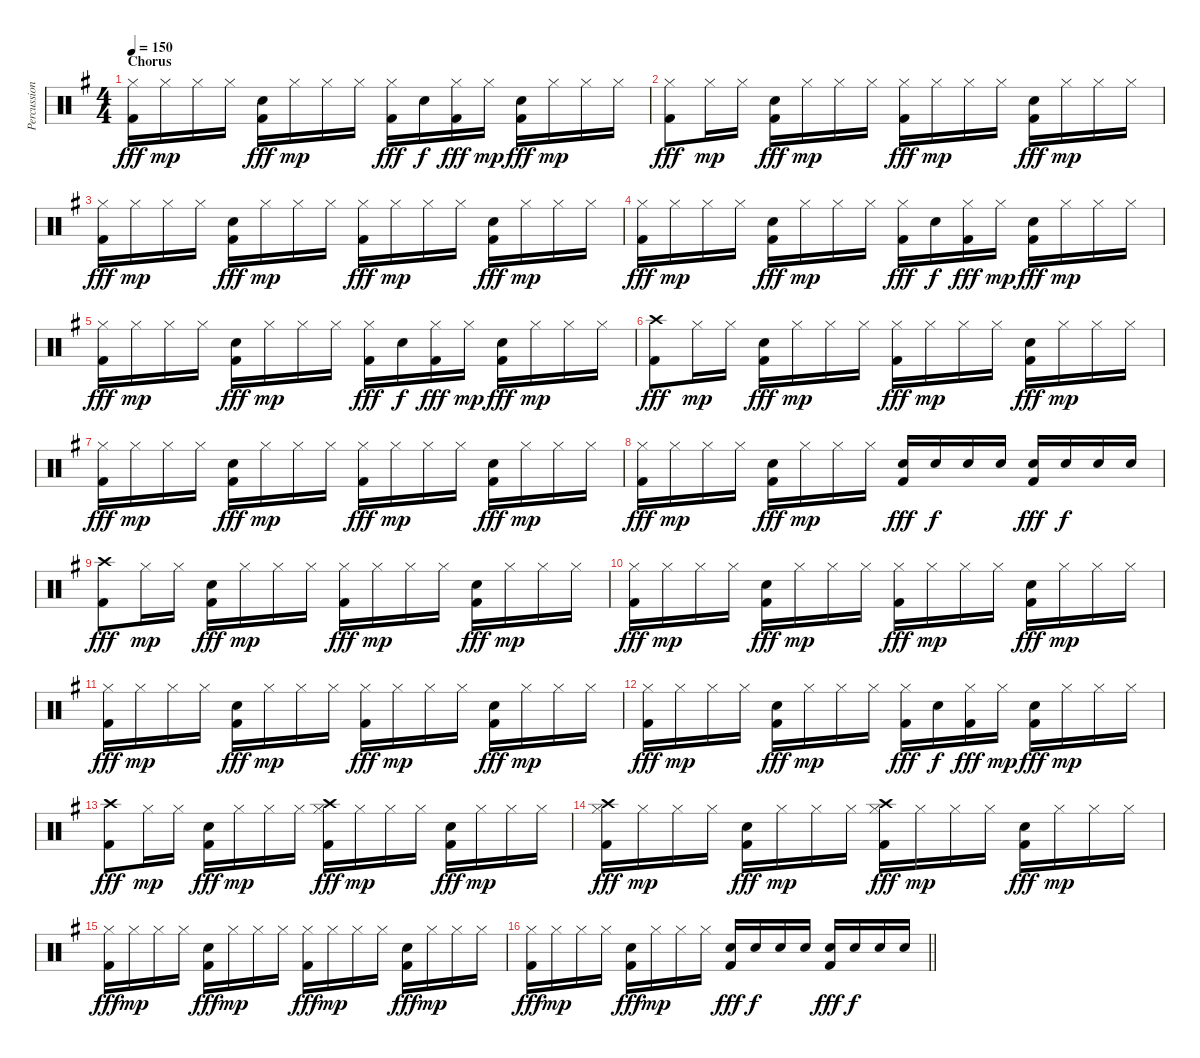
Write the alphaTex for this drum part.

\track ("Percussion" "Percussion") {instrument percussion}
\staff {score}
\articulation defaults
\ts (4 4)
\section ("" "Chorus")
\tempo 150
\clef neutral
\ks eminor
("Hi-Hat (closed)" "Kick (hit) 2").16{dy fff} "Hi-Hat (closed)".16{dy mp} "Hi-Hat (closed)".16 "Hi-Hat (closed)".16 ("Electric Snare (hit)" "Kick (hit) 2").16{dy fff} "Hi-Hat (closed)".16{dy mp} "Hi-Hat (closed)".16 "Hi-Hat (closed)".16 ("Hi-Hat (closed)" "Kick (hit) 2").16{dy fff} "Electric Snare (hit)".16{dy f} ("Hi-Hat (closed)" "Kick (hit) 2").16{dy fff} "Hi-Hat (closed)".16{dy mp} ("Electric Snare (hit)" "Kick (hit) 2").16{dy fff} "Hi-Hat (closed)".16{dy mp} "Hi-Hat (closed)".16 "Hi-Hat (closed)".16 |
("Hi-Hat (closed)" "Kick (hit) 2").8{dy fff} "Hi-Hat (closed)".16{dy mp} "Hi-Hat (closed)".16 ("Electric Snare (hit)" "Kick (hit) 2").16{dy fff} "Hi-Hat (closed)".16{dy mp} "Hi-Hat (closed)".16 "Hi-Hat (closed)".16 ("Hi-Hat (closed)" "Kick (hit) 2").16{dy fff} "Hi-Hat (closed)".16{dy mp} "Hi-Hat (closed)".16 "Hi-Hat (closed)".16 ("Electric Snare (hit)" "Kick (hit) 2").16{dy fff} "Hi-Hat (closed)".16{dy mp} "Hi-Hat (closed)".16 "Hi-Hat (closed)".16 |
("Hi-Hat (closed)" "Kick (hit) 2").16{dy fff} "Hi-Hat (closed)".16{dy mp} "Hi-Hat (closed)".16 "Hi-Hat (closed)".16 ("Electric Snare (hit)" "Kick (hit) 2").16{dy fff} "Hi-Hat (closed)".16{dy mp} "Hi-Hat (closed)".16 "Hi-Hat (closed)".16 ("Hi-Hat (closed)" "Kick (hit) 2").16{dy fff} "Hi-Hat (closed)".16{dy mp} "Hi-Hat (closed)".16 "Hi-Hat (closed)".16 ("Electric Snare (hit)" "Kick (hit) 2").16{dy fff} "Hi-Hat (closed)".16{dy mp} "Hi-Hat (closed)".16 "Hi-Hat (closed)".16 |
("Hi-Hat (closed)" "Kick (hit) 2").16{dy fff} "Hi-Hat (closed)".16{dy mp} "Hi-Hat (closed)".16 "Hi-Hat (closed)".16 ("Electric Snare (hit)" "Kick (hit) 2").16{dy fff} "Hi-Hat (closed)".16{dy mp} "Hi-Hat (closed)".16 "Hi-Hat (closed)".16 ("Hi-Hat (closed)" "Kick (hit) 2").16{dy fff} "Electric Snare (hit)".16{dy f} ("Hi-Hat (closed)" "Kick (hit) 2").16{dy fff} "Hi-Hat (closed)".16{dy mp} ("Electric Snare (hit)" "Kick (hit) 2").16{dy fff} "Hi-Hat (closed)".16{dy mp} "Hi-Hat (closed)".16 "Hi-Hat (closed)".16 |
("Hi-Hat (closed)" "Kick (hit) 2").16{dy fff} "Hi-Hat (closed)".16{dy mp} "Hi-Hat (closed)".16 "Hi-Hat (closed)".16 ("Electric Snare (hit)" "Kick (hit) 2").16{dy fff} "Hi-Hat (closed)".16{dy mp} "Hi-Hat (closed)".16 "Hi-Hat (closed)".16 ("Hi-Hat (closed)" "Kick (hit) 2").16{dy fff} "Electric Snare (hit)".16{dy f} ("Hi-Hat (closed)" "Kick (hit) 2").16{dy fff} "Hi-Hat (closed)".16{dy mp} ("Electric Snare (hit)" "Kick (hit) 2").16{dy fff} "Hi-Hat (closed)".16{dy mp} "Hi-Hat (closed)".16 "Hi-Hat (closed)".16 |
("Crash high (hit)" "Kick (hit) 2").8{dy fff} "Hi-Hat (closed)".16{dy mp} "Hi-Hat (closed)".16 ("Electric Snare (hit)" "Kick (hit) 2").16{dy fff} "Hi-Hat (closed)".16{dy mp} "Hi-Hat (closed)".16 "Hi-Hat (closed)".16 ("Hi-Hat (closed)" "Kick (hit) 2").16{dy fff} "Hi-Hat (closed)".16{dy mp} "Hi-Hat (closed)".16 "Hi-Hat (closed)".16 ("Electric Snare (hit)" "Kick (hit) 2").16{dy fff} "Hi-Hat (closed)".16{dy mp} "Hi-Hat (closed)".16 "Hi-Hat (closed)".16 |
("Hi-Hat (closed)" "Kick (hit) 2").16{dy fff} "Hi-Hat (closed)".16{dy mp} "Hi-Hat (closed)".16 "Hi-Hat (closed)".16 ("Electric Snare (hit)" "Kick (hit) 2").16{dy fff} "Hi-Hat (closed)".16{dy mp} "Hi-Hat (closed)".16 "Hi-Hat (closed)".16 ("Hi-Hat (closed)" "Kick (hit) 2").16{dy fff} "Hi-Hat (closed)".16{dy mp} "Hi-Hat (closed)".16 "Hi-Hat (closed)".16 ("Electric Snare (hit)" "Kick (hit) 2").16{dy fff} "Hi-Hat (closed)".16{dy mp} "Hi-Hat (closed)".16 "Hi-Hat (closed)".16 |
("Hi-Hat (closed)" "Kick (hit) 2").16{dy fff} "Hi-Hat (closed)".16{dy mp} "Hi-Hat (closed)".16 "Hi-Hat (closed)".16 ("Electric Snare (hit)" "Kick (hit) 2").16{dy fff} "Hi-Hat (closed)".16{dy mp} "Hi-Hat (closed)".16 "Hi-Hat (closed)".16 ("Electric Snare (hit)" "Kick (hit) 2").16{dy fff} "Electric Snare (hit)".16{dy f} "Electric Snare (hit)".16 "Electric Snare (hit)".16 ("Electric Snare (hit)" "Kick (hit) 2").16{dy fff} "Electric Snare (hit)".16{dy f} "Electric Snare (hit)".16 "Electric Snare (hit)".16 |
("Crash high (hit)" "Kick (hit) 2").8{dy fff} "Hi-Hat (closed)".16{dy mp} "Hi-Hat (closed)".16 ("Electric Snare (hit)" "Kick (hit) 2").16{dy fff} "Hi-Hat (closed)".16{dy mp} "Hi-Hat (closed)".16 "Hi-Hat (closed)".16 ("Hi-Hat (closed)" "Kick (hit) 2").16{dy fff} "Hi-Hat (closed)".16{dy mp} "Hi-Hat (closed)".16 "Hi-Hat (closed)".16 ("Electric Snare (hit)" "Kick (hit) 2").16{dy fff} "Hi-Hat (closed)".16{dy mp} "Hi-Hat (closed)".16 "Hi-Hat (closed)".16 |
("Hi-Hat (closed)" "Kick (hit) 2").16{dy fff} "Hi-Hat (closed)".16{dy mp} "Hi-Hat (closed)".16 "Hi-Hat (closed)".16 ("Electric Snare (hit)" "Kick (hit) 2").16{dy fff} "Hi-Hat (closed)".16{dy mp} "Hi-Hat (closed)".16 "Hi-Hat (closed)".16 ("Hi-Hat (closed)" "Kick (hit) 2").16{dy fff} "Hi-Hat (closed)".16{dy mp} "Hi-Hat (closed)".16 "Hi-Hat (closed)".16 ("Electric Snare (hit)" "Kick (hit) 2").16{dy fff} "Hi-Hat (closed)".16{dy mp} "Hi-Hat (closed)".16 "Hi-Hat (closed)".16 |
("Hi-Hat (closed)" "Kick (hit) 2").16{dy fff} "Hi-Hat (closed)".16{dy mp} "Hi-Hat (closed)".16 "Hi-Hat (closed)".16 ("Electric Snare (hit)" "Kick (hit) 2").16{dy fff} "Hi-Hat (closed)".16{dy mp} "Hi-Hat (closed)".16 "Hi-Hat (closed)".16 ("Hi-Hat (closed)" "Kick (hit) 2").16{dy fff} "Hi-Hat (closed)".16{dy mp} "Hi-Hat (closed)".16 "Hi-Hat (closed)".16 ("Electric Snare (hit)" "Kick (hit) 2").16{dy fff} "Hi-Hat (closed)".16{dy mp} "Hi-Hat (closed)".16 "Hi-Hat (closed)".16 |
("Hi-Hat (closed)" "Kick (hit) 2").16{dy fff} "Hi-Hat (closed)".16{dy mp} "Hi-Hat (closed)".16 "Hi-Hat (closed)".16 ("Electric Snare (hit)" "Kick (hit) 2").16{dy fff} "Hi-Hat (closed)".16{dy mp} "Hi-Hat (closed)".16 "Hi-Hat (closed)".16 ("Hi-Hat (closed)" "Kick (hit) 2").16{dy fff} "Electric Snare (hit)".16{dy f} ("Hi-Hat (closed)" "Kick (hit) 2").16{dy fff} "Hi-Hat (closed)".16{dy mp} ("Electric Snare (hit)" "Kick (hit) 2").16{dy fff} "Hi-Hat (closed)".16{dy mp} "Hi-Hat (closed)".16 "Hi-Hat (closed)".16 |
("Crash high (hit)" "Kick (hit) 2").8{dy fff} "Hi-Hat (closed)".16{dy mp} "Hi-Hat (closed)".16 ("Electric Snare (hit)" "Kick (hit) 2").16{dy fff} "Hi-Hat (closed)".16{dy mp} "Hi-Hat (closed)".16 "Hi-Hat (closed)".16 ("Hi-Hat (closed)" "Crash high (hit)" "Kick (hit) 2").16{dy fff} "Hi-Hat (closed)".16{dy mp} "Hi-Hat (closed)".16 "Hi-Hat (closed)".16 ("Electric Snare (hit)" "Kick (hit) 2").16{dy fff} "Hi-Hat (closed)".16{dy mp} "Hi-Hat (closed)".16 "Hi-Hat (closed)".16 |
("Hi-Hat (closed)" "Crash high (hit)" "Kick (hit) 2").16{dy fff} "Hi-Hat (closed)".16{dy mp} "Hi-Hat (closed)".16 "Hi-Hat (closed)".16 ("Electric Snare (hit)" "Kick (hit) 2").16{dy fff} "Hi-Hat (closed)".16{dy mp} "Hi-Hat (closed)".16 "Hi-Hat (closed)".16 ("Hi-Hat (closed)" "Crash high (hit)" "Kick (hit) 2").16{dy fff} "Hi-Hat (closed)".16{dy mp} "Hi-Hat (closed)".16 "Hi-Hat (closed)".16 ("Electric Snare (hit)" "Kick (hit) 2").16{dy fff} "Hi-Hat (closed)".16{dy mp} "Hi-Hat (closed)".16 "Hi-Hat (closed)".16 |
("Hi-Hat (closed)" "Kick (hit) 2").16{dy fff} "Hi-Hat (closed)".16{dy mp} "Hi-Hat (closed)".16 "Hi-Hat (closed)".16 ("Electric Snare (hit)" "Kick (hit) 2").16{dy fff} "Hi-Hat (closed)".16{dy mp} "Hi-Hat (closed)".16 "Hi-Hat (closed)".16 ("Hi-Hat (closed)" "Kick (hit) 2").16{dy fff} "Hi-Hat (closed)".16{dy mp} "Hi-Hat (closed)".16 "Hi-Hat (closed)".16 ("Electric Snare (hit)" "Kick (hit) 2").16{dy fff} "Hi-Hat (closed)".16{dy mp} "Hi-Hat (closed)".16 "Hi-Hat (closed)".16 |
\barLineRight lightlight
("Hi-Hat (closed)" "Kick (hit) 2").16{dy fff} "Hi-Hat (closed)".16{dy mp} "Hi-Hat (closed)".16 "Hi-Hat (closed)".16 ("Electric Snare (hit)" "Kick (hit) 2").16{dy fff} "Hi-Hat (closed)".16{dy mp} "Hi-Hat (closed)".16 "Hi-Hat (closed)".16 ("Electric Snare (hit)" "Kick (hit) 2").16{dy fff} "Electric Snare (hit)".16{dy f} "Electric Snare (hit)".16 "Electric Snare (hit)".16 ("Electric Snare (hit)" "Kick (hit) 2").16{dy fff} "Electric Snare (hit)".16{dy f} "Electric Snare (hit)".16 "Electric Snare (hit)".16
